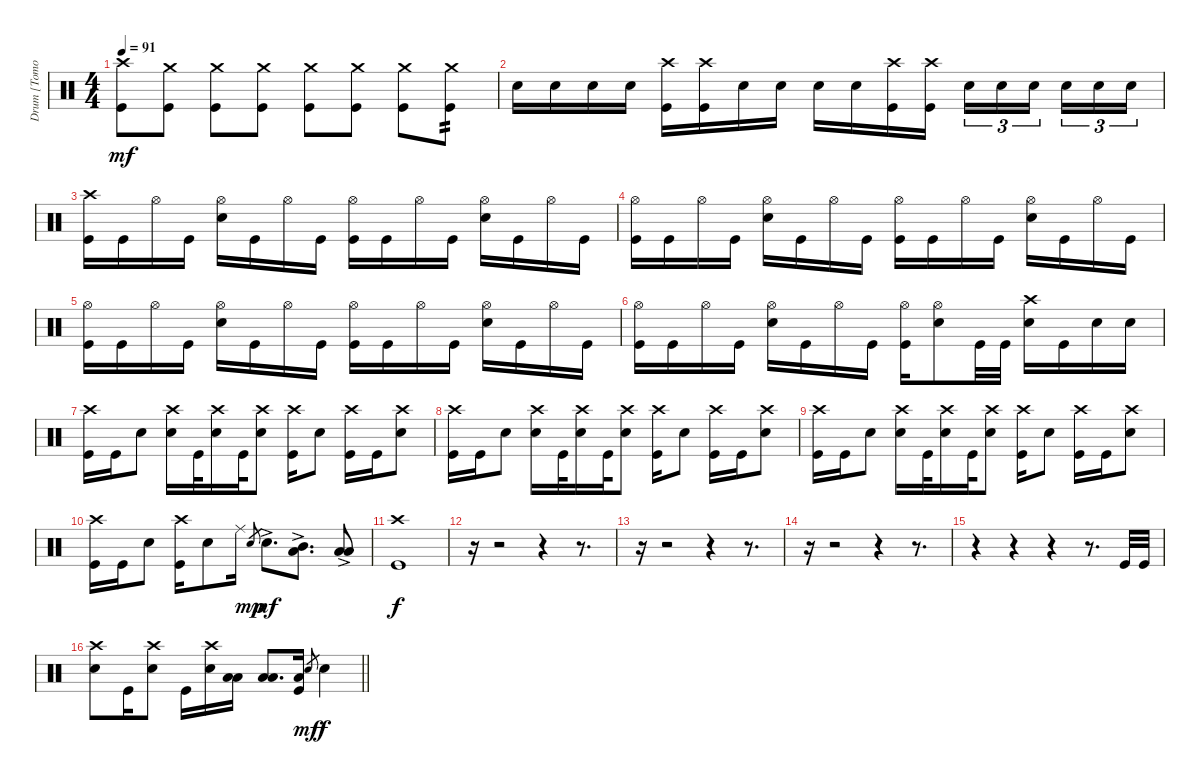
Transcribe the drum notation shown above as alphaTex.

\track ("Drum [Tomoya]" "Drum [Tomo") {instrument percussion}
\staff {score}
\articulation defaults
\ts (4 4)
\tempo 91
\clef neutral
\ks c
("Crash high (hit)" "Kick (hit)").8{dy mf} ("Crash medium (hit)" "Kick (hit)").8 ("Crash medium (hit)" "Kick (hit)").8 ("Crash medium (hit)" "Kick (hit)").8 ("Crash medium (hit)" "Kick (hit)").8 ("Crash medium (hit)" "Kick (hit)").8 ("Crash medium (hit)" "Kick (hit)").8 ("Crash medium (hit)" "Kick (hit)").8{tp 2} |
"Snare (hit) 2".16 "Snare (hit) 2".16 "Snare (hit) 2".16 "Snare (hit) 2".16 ("Crash high (hit)" "Kick (hit)").16 ("Crash high (hit)" "Kick (hit)").16 "Snare (hit) 2".16 "Snare (hit) 2".16 "Snare (hit) 2".16 "Snare (hit) 2".16 ("Crash high (hit)" "Kick (hit)").16 ("Crash high (hit)" "Kick (hit)").16 "Snare (hit) 2".16{tu (3 2)} "Snare (hit) 2".16{tu (3 2)} "Snare (hit) 2".16{tu (3 2)} "Snare (hit) 2".16{tu (3 2)} "Snare (hit) 2".16{tu (3 2)} "Snare (hit) 2".16{tu (3 2)} |
("Crash high (hit)" "Kick (hit)").16 "Kick (hit)".16 "Hi-Hat (open)".16 "Kick (hit)".16 ("Hi-Hat (open)" "Snare (hit) 2").16 "Kick (hit)".16 "Hi-Hat (open)".16 "Kick (hit)".16 ("Hi-Hat (open)" "Kick (hit)").16 "Kick (hit)".16 "Hi-Hat (open)".16 "Kick (hit)".16 ("Hi-Hat (open)" "Snare (hit) 2").16 "Kick (hit)".16 "Hi-Hat (open)".16 "Kick (hit)".16 |
("Hi-Hat (open)" "Kick (hit)").16 "Kick (hit)".16 "Hi-Hat (open)".16 "Kick (hit)".16 ("Hi-Hat (open)" "Snare (hit) 2").16 "Kick (hit)".16 "Hi-Hat (open)".16 "Kick (hit)".16 ("Hi-Hat (open)" "Kick (hit)").16 "Kick (hit)".16 "Hi-Hat (open)".16 "Kick (hit)".16 ("Hi-Hat (open)" "Snare (hit) 2").16 "Kick (hit)".16 "Hi-Hat (open)".16 "Kick (hit)".16 |
("Hi-Hat (open)" "Kick (hit)").16 "Kick (hit)".16 "Hi-Hat (open)".16 "Kick (hit)".16 ("Hi-Hat (open)" "Snare (hit) 2").16 "Kick (hit)".16 "Hi-Hat (open)".16 "Kick (hit)".16 ("Hi-Hat (open)" "Kick (hit)").16 "Kick (hit)".16 "Hi-Hat (open)".16 "Kick (hit)".16 ("Hi-Hat (open)" "Snare (hit) 2").16 "Kick (hit)".16 "Hi-Hat (open)".16 "Kick (hit)".16 |
("Hi-Hat (open)" "Kick (hit)").16 "Kick (hit)".16 "Hi-Hat (open)".16 "Kick (hit)".16 ("Hi-Hat (open)" "Snare (hit) 2").16 "Kick (hit)".16 "Hi-Hat (open)".16 "Kick (hit)".16 ("Hi-Hat (open)" "Kick (hit)").16 ("Hi-Hat (open)" "Snare (hit) 2").8 "Kick (hit)".32 "Kick (hit)".32 ("Crash high (hit)" "Snare (hit) 2").16 "Kick (hit)".16 "Snare (hit) 2".16 "Snare (hit) 2".16 |
("Crash high (hit)" "Kick (hit)").16 "Kick (hit)".16 "Snare (hit) 2".8 ("Crash high (hit)" "Snare (hit) 2").16 "Kick (hit)".32 ("Crash high (hit)" "Snare (hit) 2").16 "Kick (hit)".32 ("Crash high (hit)" "Snare (hit) 2").8 ("Kick (hit)" "Crash high (hit)").16 "Snare (hit) 2".8 ("Crash high (hit)" "Kick (hit)").16 "Kick (hit)".16 ("Crash high (hit)" "Snare (hit) 2").8 |
("Crash high (hit)" "Kick (hit)").16 "Kick (hit)".16 "Snare (hit) 2".8 ("Crash high (hit)" "Snare (hit) 2").16 "Kick (hit)".32 ("Crash high (hit)" "Snare (hit) 2").16 "Kick (hit)".32 ("Crash high (hit)" "Snare (hit) 2").8 ("Kick (hit)" "Crash high (hit)").16 "Snare (hit) 2".8 ("Crash high (hit)" "Kick (hit)").16 "Kick (hit)".16 ("Crash high (hit)" "Snare (hit) 2").8 |
("Crash high (hit)" "Kick (hit)").16 "Kick (hit)".16 "Snare (hit) 2".8 ("Crash high (hit)" "Snare (hit) 2").16 "Kick (hit)".32 ("Crash high (hit)" "Snare (hit) 2").16 "Kick (hit)".32 ("Crash high (hit)" "Snare (hit) 2").8 ("Kick (hit)" "Crash high (hit)").16 "Snare (hit) 2".8 ("Crash high (hit)" "Kick (hit)").16 "Kick (hit)".16 ("Crash high (hit)" "Snare (hit) 2").8 |
("Crash high (hit)" "Kick (hit)").16 "Kick (hit)".16 "Snare (hit) 2".8 ("Crash high (hit)" "Kick (hit)").16 "Snare (hit) 2".8 "Ride (middle)".16 "Snare (hit)".8{gr dy mp} "Snare (hit) 2"{ac}.8{d dy mf} ("Mid Tom (hit)"{ac} "Low Tom (hit)"{ac}).8{d} ("Low Tom (hit)"{ac} "Low Floor Tom (hit)"{ac}).8 |
("Crash high (hit)" "Kick (hit)").1{dy f} |
r.16 r.2 r.4 r.8{d} |
r.16 r.2 r.4 r.8{d} |
r.16 r.2 r.4 r.8{d} |
r.4 r.4 r.4 r.8{d} "Kick (hit)".32 "Kick (hit)".32 |
\barLineRight lightlight
("Crash high (hit)" "Snare (hit) 2").8 "Kick (hit)".16 ("Crash high (hit)" "Snare (hit) 2").8 "Kick (hit)".16 ("Crash high (hit)" "Snare (hit) 2").16 ("Low Floor Tom (hit)" "Low Tom (hit)").16 ("Low Floor Tom (hit)" "Low Tom (hit)").8{d} ("Low Floor Tom (hit)" "Kick (hit)").16 "Snare (hit)".8{gr dy mf} "Snare (hit) 2".4{dy f}
